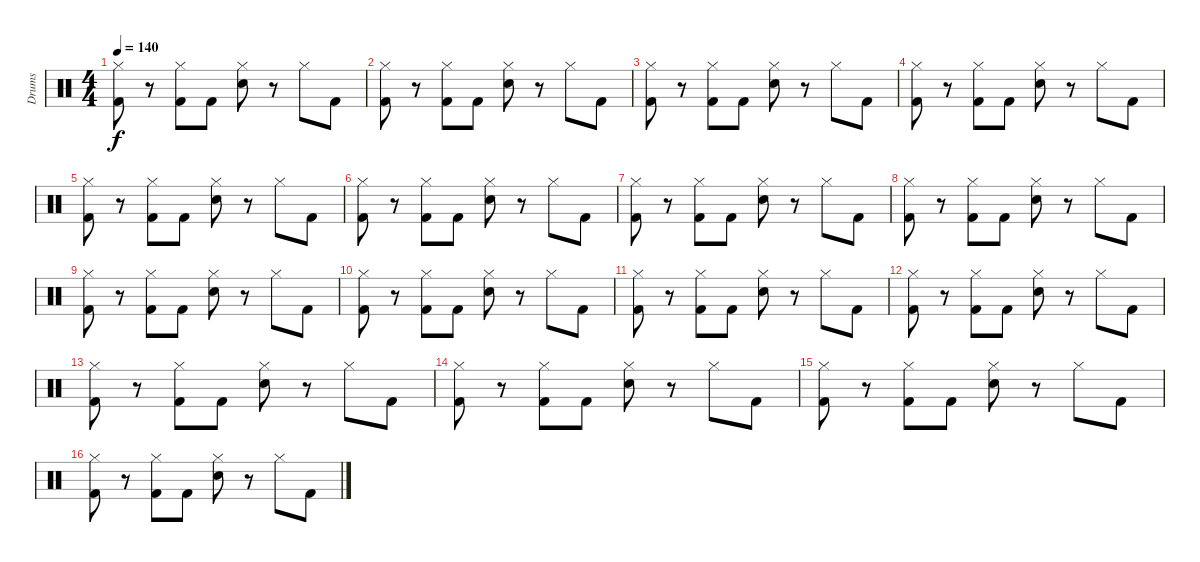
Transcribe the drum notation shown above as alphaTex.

\track ("Drums" "Drums") {instrument percussion}
\staff {score}
\articulation defaults
\ts (4 4)
\tempo 140
\clef neutral
\ks c
("Hi-Hat (closed)" "Kick (hit) 2").8{dy f} r.8 ("Hi-Hat (closed)" "Kick (hit) 2").8 "Kick (hit) 2".8 ("Hi-Hat (closed)" "Snare (hit) 2").8 r.8 "Hi-Hat (closed)".8 "Kick (hit) 2".8 |
("Hi-Hat (closed)" "Kick (hit) 2").8 r.8 ("Hi-Hat (closed)" "Kick (hit) 2").8 "Kick (hit) 2".8 ("Hi-Hat (closed)" "Snare (hit) 2").8 r.8 "Hi-Hat (closed)".8 "Kick (hit) 2".8 |
("Hi-Hat (closed)" "Kick (hit) 2").8 r.8 ("Hi-Hat (closed)" "Kick (hit) 2").8 "Kick (hit) 2".8 ("Hi-Hat (closed)" "Snare (hit) 2").8 r.8 "Hi-Hat (closed)".8 "Kick (hit) 2".8 |
("Hi-Hat (closed)" "Kick (hit) 2").8 r.8 ("Hi-Hat (closed)" "Kick (hit) 2").8 "Kick (hit) 2".8 ("Hi-Hat (closed)" "Snare (hit) 2").8 r.8 "Hi-Hat (closed)".8 "Kick (hit) 2".8 |
("Hi-Hat (closed)" "Kick (hit) 2").8 r.8 ("Hi-Hat (closed)" "Kick (hit) 2").8 "Kick (hit) 2".8 ("Hi-Hat (closed)" "Snare (hit) 2").8 r.8 "Hi-Hat (closed)".8 "Kick (hit) 2".8 |
("Hi-Hat (closed)" "Kick (hit) 2").8 r.8 ("Hi-Hat (closed)" "Kick (hit) 2").8 "Kick (hit) 2".8 ("Hi-Hat (closed)" "Snare (hit) 2").8 r.8 "Hi-Hat (closed)".8 "Kick (hit) 2".8 |
("Hi-Hat (closed)" "Kick (hit) 2").8 r.8 ("Hi-Hat (closed)" "Kick (hit) 2").8 "Kick (hit) 2".8 ("Hi-Hat (closed)" "Snare (hit) 2").8 r.8 "Hi-Hat (closed)".8 "Kick (hit) 2".8 |
("Hi-Hat (closed)" "Kick (hit) 2").8 r.8 ("Hi-Hat (closed)" "Kick (hit) 2").8 "Kick (hit) 2".8 ("Hi-Hat (closed)" "Snare (hit) 2").8 r.8 "Hi-Hat (closed)".8 "Kick (hit) 2".8 |
("Hi-Hat (closed)" "Kick (hit) 2").8 r.8 ("Hi-Hat (closed)" "Kick (hit) 2").8 "Kick (hit) 2".8 ("Hi-Hat (closed)" "Snare (hit) 2").8 r.8 "Hi-Hat (closed)".8 "Kick (hit) 2".8 |
("Hi-Hat (closed)" "Kick (hit) 2").8 r.8 ("Hi-Hat (closed)" "Kick (hit) 2").8 "Kick (hit) 2".8 ("Hi-Hat (closed)" "Snare (hit) 2").8 r.8 "Hi-Hat (closed)".8 "Kick (hit) 2".8 |
("Hi-Hat (closed)" "Kick (hit) 2").8 r.8 ("Hi-Hat (closed)" "Kick (hit) 2").8 "Kick (hit) 2".8 ("Hi-Hat (closed)" "Snare (hit) 2").8 r.8 "Hi-Hat (closed)".8 "Kick (hit) 2".8 |
("Hi-Hat (closed)" "Kick (hit) 2").8 r.8 ("Hi-Hat (closed)" "Kick (hit) 2").8 "Kick (hit) 2".8 ("Hi-Hat (closed)" "Snare (hit) 2").8 r.8 "Hi-Hat (closed)".8 "Kick (hit) 2".8 |
("Hi-Hat (closed)" "Kick (hit) 2").8 r.8 ("Hi-Hat (closed)" "Kick (hit) 2").8 "Kick (hit) 2".8 ("Hi-Hat (closed)" "Snare (hit) 2").8 r.8 "Hi-Hat (closed)".8 "Kick (hit) 2".8 |
("Hi-Hat (closed)" "Kick (hit) 2").8 r.8 ("Hi-Hat (closed)" "Kick (hit) 2").8 "Kick (hit) 2".8 ("Hi-Hat (closed)" "Snare (hit) 2").8 r.8 "Hi-Hat (closed)".8 "Kick (hit) 2".8 |
("Hi-Hat (closed)" "Kick (hit) 2").8 r.8 ("Hi-Hat (closed)" "Kick (hit) 2").8 "Kick (hit) 2".8 ("Hi-Hat (closed)" "Snare (hit) 2").8 r.8 "Hi-Hat (closed)".8 "Kick (hit) 2".8 |
("Hi-Hat (closed)" "Kick (hit) 2").8 r.8 ("Hi-Hat (closed)" "Kick (hit) 2").8 "Kick (hit) 2".8 ("Hi-Hat (closed)" "Snare (hit) 2").8 r.8 "Hi-Hat (closed)".8 "Kick (hit) 2".8
